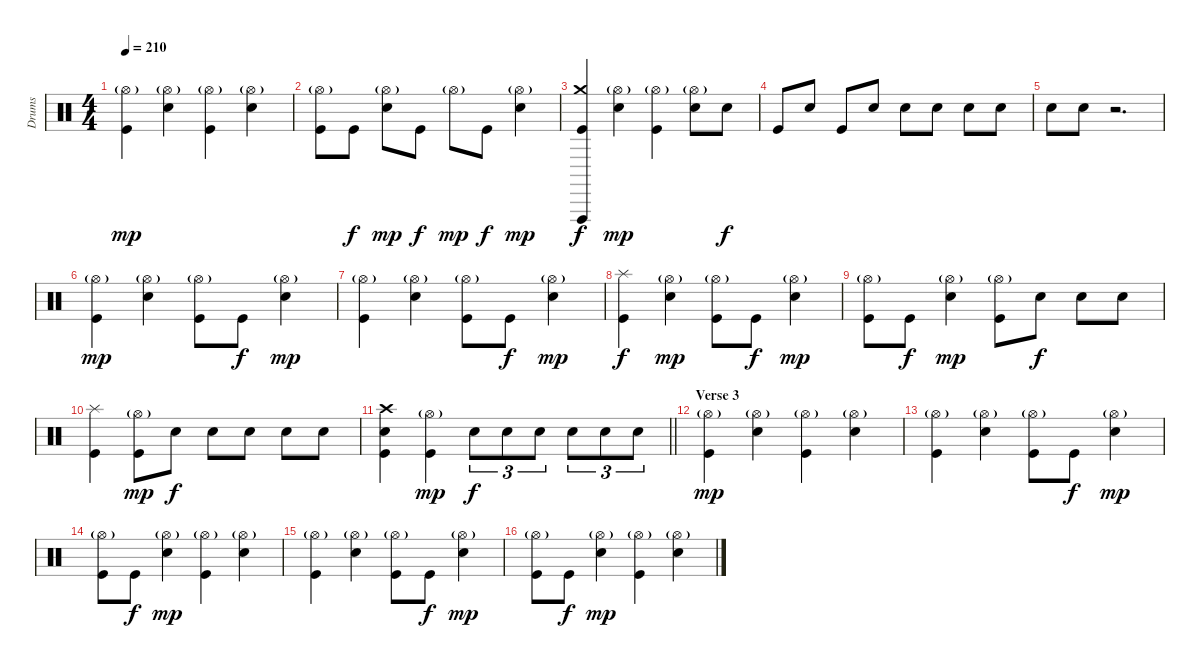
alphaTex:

\track ("Drums" "Drums") {instrument percussion}
\staff {score}
\articulation defaults
\ts (4 4)
\tempo 210
\clef neutral
\ks c
("Hi-Hat (open)"{g} "Kick (hit)").4{dy mp} ("Hi-Hat (open)"{g} "Snare (hit) 2").4 ("Hi-Hat (open)"{g} "Kick (hit)").4 ("Hi-Hat (open)"{g} "Snare (hit) 2").4 |
("Hi-Hat (open)"{g} "Kick (hit)").8 "Kick (hit)".8{dy f} ("Hi-Hat (open)"{g} "Snare (hit) 2").8{dy mp} "Kick (hit)".8{dy f} "Hi-Hat (open)"{g}.8{dy mp} "Kick (hit)".8{dy f} ("Hi-Hat (open)"{g} "Snare (hit) 2").4{dy mp} |
("Crash medium (hit)" "Vibraslap (hit)" "Kick (hit)").4{dy f} ("Hi-Hat (open)"{g} "Snare (hit) 2").4{dy mp} ("Hi-Hat (open)"{g} "Kick (hit)").4 ("Hi-Hat (open)"{g} "Snare (hit) 2").8 "Snare (hit) 2".8{dy f} |
"Kick (hit)".8 "Snare (hit) 2".8 "Kick (hit)".8 "Snare (hit) 2".8 "Snare (hit) 2".8 "Snare (hit) 2".8 "Snare (hit) 2".8 "Snare (hit) 2".8 |
"Snare (hit) 2".8 "Snare (hit) 2".8 r.2{d} |
("Hi-Hat (open)"{g} "Kick (hit)").4{dy mp} ("Hi-Hat (open)"{g} "Snare (hit) 2").4 ("Hi-Hat (open)"{g} "Kick (hit)").8 "Kick (hit)".8{dy f} ("Hi-Hat (open)"{g} "Snare (hit) 2").4{dy mp} |
("Hi-Hat (open)"{g} "Kick (hit)").4 ("Hi-Hat (open)"{g} "Snare (hit) 2").4 ("Hi-Hat (open)"{g} "Kick (hit)").8 "Kick (hit)".8{dy f} ("Hi-Hat (open)"{g} "Snare (hit) 2").4{dy mp} |
("Splash (hit)" "Kick (hit)").4{dy f} ("Hi-Hat (open)"{g} "Snare (hit) 2").4{dy mp} ("Hi-Hat (open)"{g} "Kick (hit)").8 "Kick (hit)".8{dy f} ("Hi-Hat (open)"{g} "Snare (hit) 2").4{dy mp} |
("Hi-Hat (open)"{g} "Kick (hit)").8 "Kick (hit)".8{dy f} ("Hi-Hat (open)"{g} "Snare (hit) 2").4{dy mp} ("Hi-Hat (open)"{g} "Kick (hit)").8 "Snare (hit) 2".8{dy f} "Snare (hit) 2".8 "Snare (hit) 2".8 |
("Splash (hit)" "Kick (hit)").4 ("Hi-Hat (open)"{g} "Kick (hit)").8{dy mp} "Snare (hit) 2".8{dy f} "Snare (hit) 2".8 "Snare (hit) 2".8 "Snare (hit) 2".8 "Snare (hit) 2".8 |
\barLineRight lightlight
("Crash high (hit)" "Snare (hit) 2" "Kick (hit)").4 ("Hi-Hat (open)"{g} "Kick (hit)").4{dy mp} "Snare (hit) 2".8{tu (3 2) dy f} "Snare (hit) 2".8{tu (3 2)} "Snare (hit) 2".8{tu (3 2)} "Snare (hit) 2".8{tu (3 2)} "Snare (hit) 2".8{tu (3 2)} "Snare (hit) 2".8{tu (3 2)} |
\section ("" "Verse 3")
("Hi-Hat (open)"{g} "Kick (hit)").4{dy mp} ("Hi-Hat (open)"{g} "Snare (hit) 2").4 ("Hi-Hat (open)"{g} "Kick (hit)").4 ("Hi-Hat (open)"{g} "Snare (hit) 2").4 |
("Hi-Hat (open)"{g} "Kick (hit)").4 ("Hi-Hat (open)"{g} "Snare (hit) 2").4 ("Hi-Hat (open)"{g} "Kick (hit)").8 "Kick (hit)".8{dy f} ("Hi-Hat (open)"{g} "Snare (hit) 2").4{dy mp} |
("Hi-Hat (open)"{g} "Kick (hit)").8 "Kick (hit)".8{dy f} ("Hi-Hat (open)"{g} "Snare (hit) 2").4{dy mp} ("Hi-Hat (open)"{g} "Kick (hit)").4 ("Hi-Hat (open)"{g} "Snare (hit) 2").4 |
("Hi-Hat (open)"{g} "Kick (hit)").4 ("Hi-Hat (open)"{g} "Snare (hit) 2").4 ("Hi-Hat (open)"{g} "Kick (hit)").8 "Kick (hit)".8{dy f} ("Hi-Hat (open)"{g} "Snare (hit) 2").4{dy mp} |
("Hi-Hat (open)"{g} "Kick (hit)").8 "Kick (hit)".8{dy f} ("Hi-Hat (open)"{g} "Snare (hit) 2").4{dy mp} ("Hi-Hat (open)"{g} "Kick (hit)").4 ("Hi-Hat (open)"{g} "Snare (hit) 2").4
